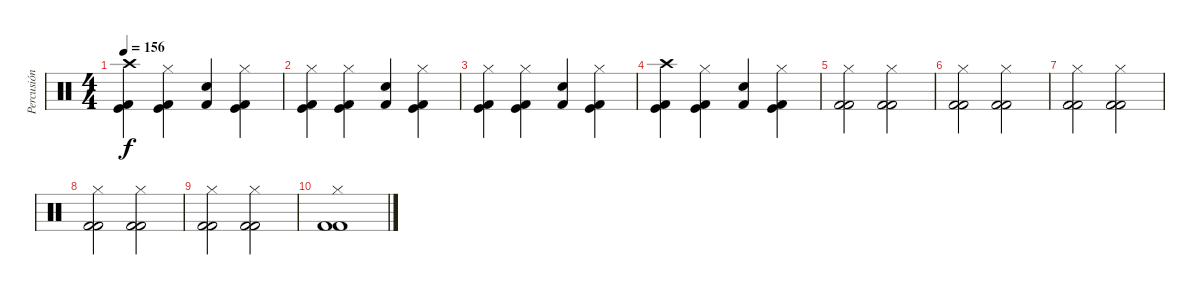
\track ("Percusión" "Percusión") {instrument percussion}
\staff {score}
\articulation defaults
\ts (4 4)
\tempo 156
\clef neutral
\ks c
("Kick (hit) 2" "Kick (hit)" "Crash high (hit)").4{dy f} ("Kick (hit) 2" "Kick (hit)" "Hi-Hat (closed)").4 ("Kick (hit) 2" "Snare (hit) 2").4 ("Kick (hit) 2" "Kick (hit)" "Hi-Hat (closed)").4 |
("Kick (hit) 2" "Kick (hit)" "Hi-Hat (closed)").4 ("Kick (hit) 2" "Kick (hit)" "Hi-Hat (closed)").4 ("Kick (hit) 2" "Snare (hit) 2").4 ("Kick (hit) 2" "Kick (hit)" "Hi-Hat (closed)").4 |
("Kick (hit) 2" "Kick (hit)" "Hi-Hat (closed)").4 ("Kick (hit) 2" "Kick (hit)" "Hi-Hat (closed)").4 ("Kick (hit) 2" "Snare (hit) 2").4 ("Kick (hit) 2" "Kick (hit)" "Hi-Hat (closed)").4 |
("Kick (hit) 2" "Kick (hit)" "Crash high (hit)").4 ("Kick (hit) 2" "Kick (hit)" "Hi-Hat (closed)").4 ("Kick (hit) 2" "Snare (hit) 2").4 ("Kick (hit) 2" "Kick (hit)" "Hi-Hat (closed)").4 |
("Kick (hit) 2" "Kick (hit) 2" "Hi-Hat (closed)").2 ("Kick (hit) 2" "Kick (hit) 2" "Hi-Hat (closed)").2 |
("Kick (hit) 2" "Kick (hit) 2" "Hi-Hat (closed)").2 ("Kick (hit) 2" "Kick (hit) 2" "Hi-Hat (closed)").2 |
("Kick (hit) 2" "Kick (hit) 2" "Hi-Hat (closed)").2 ("Kick (hit) 2" "Kick (hit) 2" "Hi-Hat (closed)").2 |
("Kick (hit) 2" "Kick (hit) 2" "Hi-Hat (closed)").2 ("Kick (hit) 2" "Kick (hit) 2" "Hi-Hat (closed)").2 |
("Kick (hit) 2" "Kick (hit) 2" "Hi-Hat (closed)").2 ("Kick (hit) 2" "Kick (hit) 2" "Hi-Hat (closed)").2 |
("Kick (hit) 2" "Kick (hit) 2" "Hi-Hat (closed)").1
